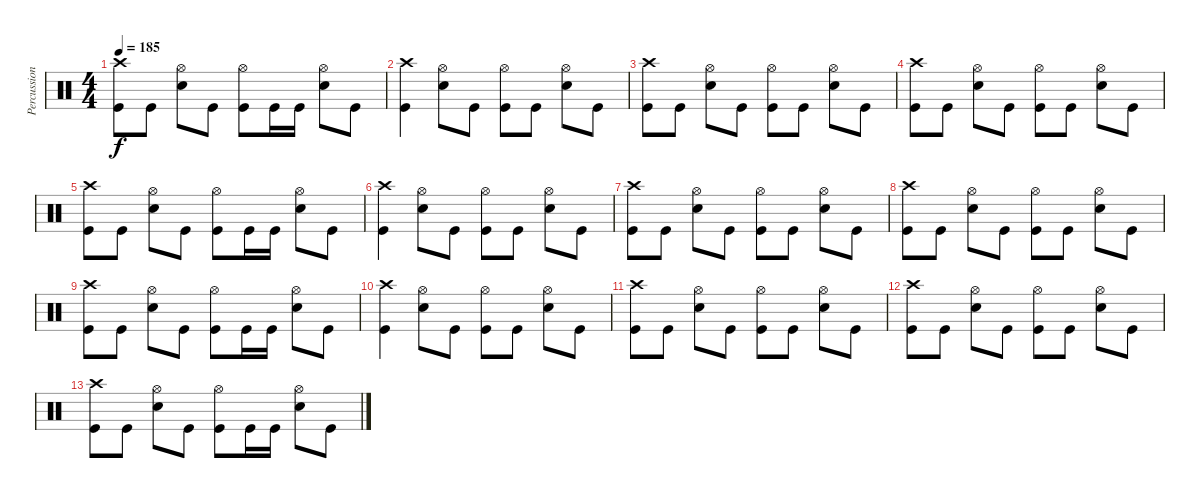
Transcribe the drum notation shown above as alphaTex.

\track ("Percussions" "Percussion") {instrument percussion}
\staff {score}
\articulation defaults
\ts (4 4)
\tempo 185
\clef neutral
\ks c
("Crash high (hit)" "Kick (hit)").8{dy f} "Kick (hit)".8 ("Hi-Hat (open)" "Snare (hit) 2").8 "Kick (hit)".8 ("Hi-Hat (open)" "Kick (hit)").8 "Kick (hit)".16 "Kick (hit)".16 ("Hi-Hat (open)" "Snare (hit) 2").8 "Kick (hit)".8 |
("Crash high (hit)" "Kick (hit)").4 ("Hi-Hat (open)" "Snare (hit) 2").8 "Kick (hit)".8 ("Hi-Hat (open)" "Kick (hit)").8 "Kick (hit)".8 ("Hi-Hat (open)" "Snare (hit) 2").8 "Kick (hit)".8 |
("Crash high (hit)" "Kick (hit)").8 "Kick (hit)".8 ("Hi-Hat (open)" "Snare (hit) 2").8 "Kick (hit)".8 ("Hi-Hat (open)" "Kick (hit)").8 "Kick (hit)".8 ("Hi-Hat (open)" "Snare (hit) 2").8 "Kick (hit)".8 |
("Crash high (hit)" "Kick (hit)").8 "Kick (hit)".8 ("Hi-Hat (open)" "Snare (hit) 2").8 "Kick (hit)".8 ("Hi-Hat (open)" "Kick (hit)").8 "Kick (hit)".8 ("Hi-Hat (open)" "Snare (hit) 2").8 "Kick (hit)".8 |
("Crash high (hit)" "Kick (hit)").8 "Kick (hit)".8 ("Hi-Hat (open)" "Snare (hit) 2").8 "Kick (hit)".8 ("Hi-Hat (open)" "Kick (hit)").8 "Kick (hit)".16 "Kick (hit)".16 ("Hi-Hat (open)" "Snare (hit) 2").8 "Kick (hit)".8 |
("Crash high (hit)" "Kick (hit)").4 ("Hi-Hat (open)" "Snare (hit) 2").8 "Kick (hit)".8 ("Hi-Hat (open)" "Kick (hit)").8 "Kick (hit)".8 ("Hi-Hat (open)" "Snare (hit) 2").8 "Kick (hit)".8 |
("Crash high (hit)" "Kick (hit)").8 "Kick (hit)".8 ("Hi-Hat (open)" "Snare (hit) 2").8 "Kick (hit)".8 ("Hi-Hat (open)" "Kick (hit)").8 "Kick (hit)".8 ("Hi-Hat (open)" "Snare (hit) 2").8 "Kick (hit)".8 |
("Crash high (hit)" "Kick (hit)").8 "Kick (hit)".8 ("Hi-Hat (open)" "Snare (hit) 2").8 "Kick (hit)".8 ("Hi-Hat (open)" "Kick (hit)").8 "Kick (hit)".8 ("Hi-Hat (open)" "Snare (hit) 2").8 "Kick (hit)".8 |
("Crash high (hit)" "Kick (hit)").8 "Kick (hit)".8 ("Hi-Hat (open)" "Snare (hit) 2").8 "Kick (hit)".8 ("Hi-Hat (open)" "Kick (hit)").8 "Kick (hit)".16 "Kick (hit)".16 ("Hi-Hat (open)" "Snare (hit) 2").8 "Kick (hit)".8 |
("Crash high (hit)" "Kick (hit)").4 ("Hi-Hat (open)" "Snare (hit) 2").8 "Kick (hit)".8 ("Hi-Hat (open)" "Kick (hit)").8 "Kick (hit)".8 ("Hi-Hat (open)" "Snare (hit) 2").8 "Kick (hit)".8 |
("Crash high (hit)" "Kick (hit)").8 "Kick (hit)".8 ("Hi-Hat (open)" "Snare (hit) 2").8 "Kick (hit)".8 ("Hi-Hat (open)" "Kick (hit)").8 "Kick (hit)".8 ("Hi-Hat (open)" "Snare (hit) 2").8 "Kick (hit)".8 |
("Crash high (hit)" "Kick (hit)").8 "Kick (hit)".8 ("Hi-Hat (open)" "Snare (hit) 2").8 "Kick (hit)".8 ("Hi-Hat (open)" "Kick (hit)").8 "Kick (hit)".8 ("Hi-Hat (open)" "Snare (hit) 2").8 "Kick (hit)".8 |
("Crash high (hit)" "Kick (hit)").8 "Kick (hit)".8 ("Hi-Hat (open)" "Snare (hit) 2").8 "Kick (hit)".8 ("Hi-Hat (open)" "Kick (hit)").8 "Kick (hit)".16 "Kick (hit)".16 ("Hi-Hat (open)" "Snare (hit) 2").8 "Kick (hit)".8
